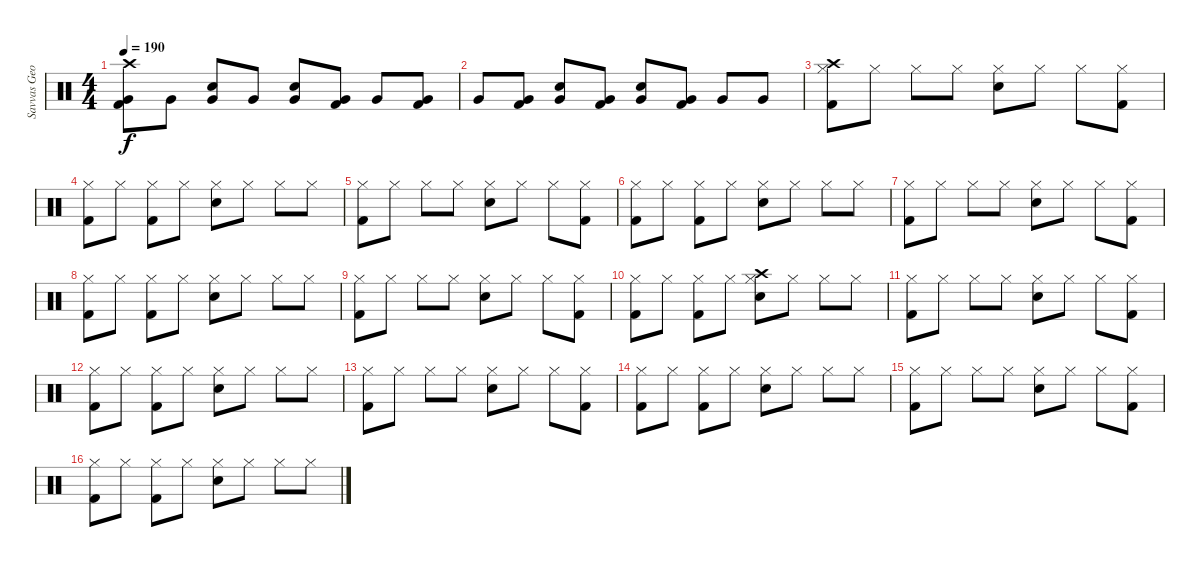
\track ("Savvas Georgiadis" "Savvas Geo") {instrument percussion}
\staff {score}
\articulation defaults
\ts (4 4)
\tempo 190
\clef neutral
\ks c
("Crash high (hit)" "Kick (hit) 2" "Very Low Tom (hit)").8{dy f} "Very Low Tom (hit)".8 ("Electric Snare (hit)" "Very Low Tom (hit)").8 "Very Low Tom (hit)".8 ("Electric Snare (hit)" "Very Low Tom (hit)").8 ("Kick (hit) 2" "Very Low Tom (hit)").8 "Very Low Tom (hit)".8 ("Kick (hit) 2" "Very Low Tom (hit)").8 |
"Very Low Tom (hit)".8 ("Kick (hit) 2" "Very Low Tom (hit)").8 ("Electric Snare (hit)" "Very Low Tom (hit)").8 ("Kick (hit) 2" "Very Low Tom (hit)").8 ("Electric Snare (hit)" "Very Low Tom (hit)").8 ("Kick (hit) 2" "Very Low Tom (hit)").8 "Very Low Tom (hit)".8 "Very Low Tom (hit)".8 |
("Crash high (hit)" "Hi-Hat (closed)" "Kick (hit) 2").8 "Hi-Hat (closed)".8 "Hi-Hat (closed)".8 "Hi-Hat (closed)".8 ("Hi-Hat (closed)" "Electric Snare (hit)").8 "Hi-Hat (closed)".8 "Hi-Hat (closed)".8 ("Hi-Hat (closed)" "Kick (hit) 2").8 |
("Hi-Hat (closed)" "Kick (hit) 2").8 "Hi-Hat (closed)".8 ("Hi-Hat (closed)" "Kick (hit) 2").8 "Hi-Hat (closed)".8 ("Hi-Hat (closed)" "Electric Snare (hit)").8 "Hi-Hat (closed)".8 "Hi-Hat (closed)".8 "Hi-Hat (closed)".8 |
("Hi-Hat (closed)" "Kick (hit) 2").8 "Hi-Hat (closed)".8 "Hi-Hat (closed)".8 "Hi-Hat (closed)".8 ("Hi-Hat (closed)" "Electric Snare (hit)").8 "Hi-Hat (closed)".8 "Hi-Hat (closed)".8 ("Hi-Hat (closed)" "Kick (hit) 2").8 |
("Hi-Hat (closed)" "Kick (hit) 2").8 "Hi-Hat (closed)".8 ("Hi-Hat (closed)" "Kick (hit) 2").8 "Hi-Hat (closed)".8 ("Hi-Hat (closed)" "Electric Snare (hit)").8 "Hi-Hat (closed)".8 "Hi-Hat (closed)".8 "Hi-Hat (closed)".8 |
("Hi-Hat (closed)" "Kick (hit) 2").8 "Hi-Hat (closed)".8 "Hi-Hat (closed)".8 "Hi-Hat (closed)".8 ("Hi-Hat (closed)" "Electric Snare (hit)").8 "Hi-Hat (closed)".8 "Hi-Hat (closed)".8 ("Hi-Hat (closed)" "Kick (hit) 2").8 |
("Hi-Hat (closed)" "Kick (hit) 2").8 "Hi-Hat (closed)".8 ("Hi-Hat (closed)" "Kick (hit) 2").8 "Hi-Hat (closed)".8 ("Hi-Hat (closed)" "Electric Snare (hit)").8 "Hi-Hat (closed)".8 "Hi-Hat (closed)".8 "Hi-Hat (closed)".8 |
("Hi-Hat (closed)" "Kick (hit) 2").8 "Hi-Hat (closed)".8 "Hi-Hat (closed)".8 "Hi-Hat (closed)".8 ("Hi-Hat (closed)" "Electric Snare (hit)").8 "Hi-Hat (closed)".8 "Hi-Hat (closed)".8 ("Hi-Hat (closed)" "Kick (hit) 2").8 |
("Hi-Hat (closed)" "Kick (hit) 2").8 "Hi-Hat (closed)".8 ("Hi-Hat (closed)" "Kick (hit) 2").8 "Hi-Hat (closed)".8 ("Crash high (hit)" "Hi-Hat (closed)" "Electric Snare (hit)").8 "Hi-Hat (closed)".8 "Hi-Hat (closed)".8 "Hi-Hat (closed)".8 |
("Hi-Hat (closed)" "Kick (hit) 2").8 "Hi-Hat (closed)".8 "Hi-Hat (closed)".8 "Hi-Hat (closed)".8 ("Hi-Hat (closed)" "Electric Snare (hit)").8 "Hi-Hat (closed)".8 "Hi-Hat (closed)".8 ("Hi-Hat (closed)" "Kick (hit) 2").8 |
("Hi-Hat (closed)" "Kick (hit) 2").8 "Hi-Hat (closed)".8 ("Hi-Hat (closed)" "Kick (hit) 2").8 "Hi-Hat (closed)".8 ("Hi-Hat (closed)" "Electric Snare (hit)").8 "Hi-Hat (closed)".8 "Hi-Hat (closed)".8 "Hi-Hat (closed)".8 |
("Hi-Hat (closed)" "Kick (hit) 2").8 "Hi-Hat (closed)".8 "Hi-Hat (closed)".8 "Hi-Hat (closed)".8 ("Hi-Hat (closed)" "Electric Snare (hit)").8 "Hi-Hat (closed)".8 "Hi-Hat (closed)".8 ("Hi-Hat (closed)" "Kick (hit) 2").8 |
("Hi-Hat (closed)" "Kick (hit) 2").8 "Hi-Hat (closed)".8 ("Hi-Hat (closed)" "Kick (hit) 2").8 "Hi-Hat (closed)".8 ("Hi-Hat (closed)" "Electric Snare (hit)").8 "Hi-Hat (closed)".8 "Hi-Hat (closed)".8 "Hi-Hat (closed)".8 |
("Hi-Hat (closed)" "Kick (hit) 2").8 "Hi-Hat (closed)".8 "Hi-Hat (closed)".8 "Hi-Hat (closed)".8 ("Hi-Hat (closed)" "Electric Snare (hit)").8 "Hi-Hat (closed)".8 "Hi-Hat (closed)".8 ("Hi-Hat (closed)" "Kick (hit) 2").8 |
("Hi-Hat (closed)" "Kick (hit) 2").8 "Hi-Hat (closed)".8 ("Hi-Hat (closed)" "Kick (hit) 2").8 "Hi-Hat (closed)".8 ("Hi-Hat (closed)" "Electric Snare (hit)").8 "Hi-Hat (closed)".8 "Hi-Hat (closed)".8 "Hi-Hat (closed)".8
